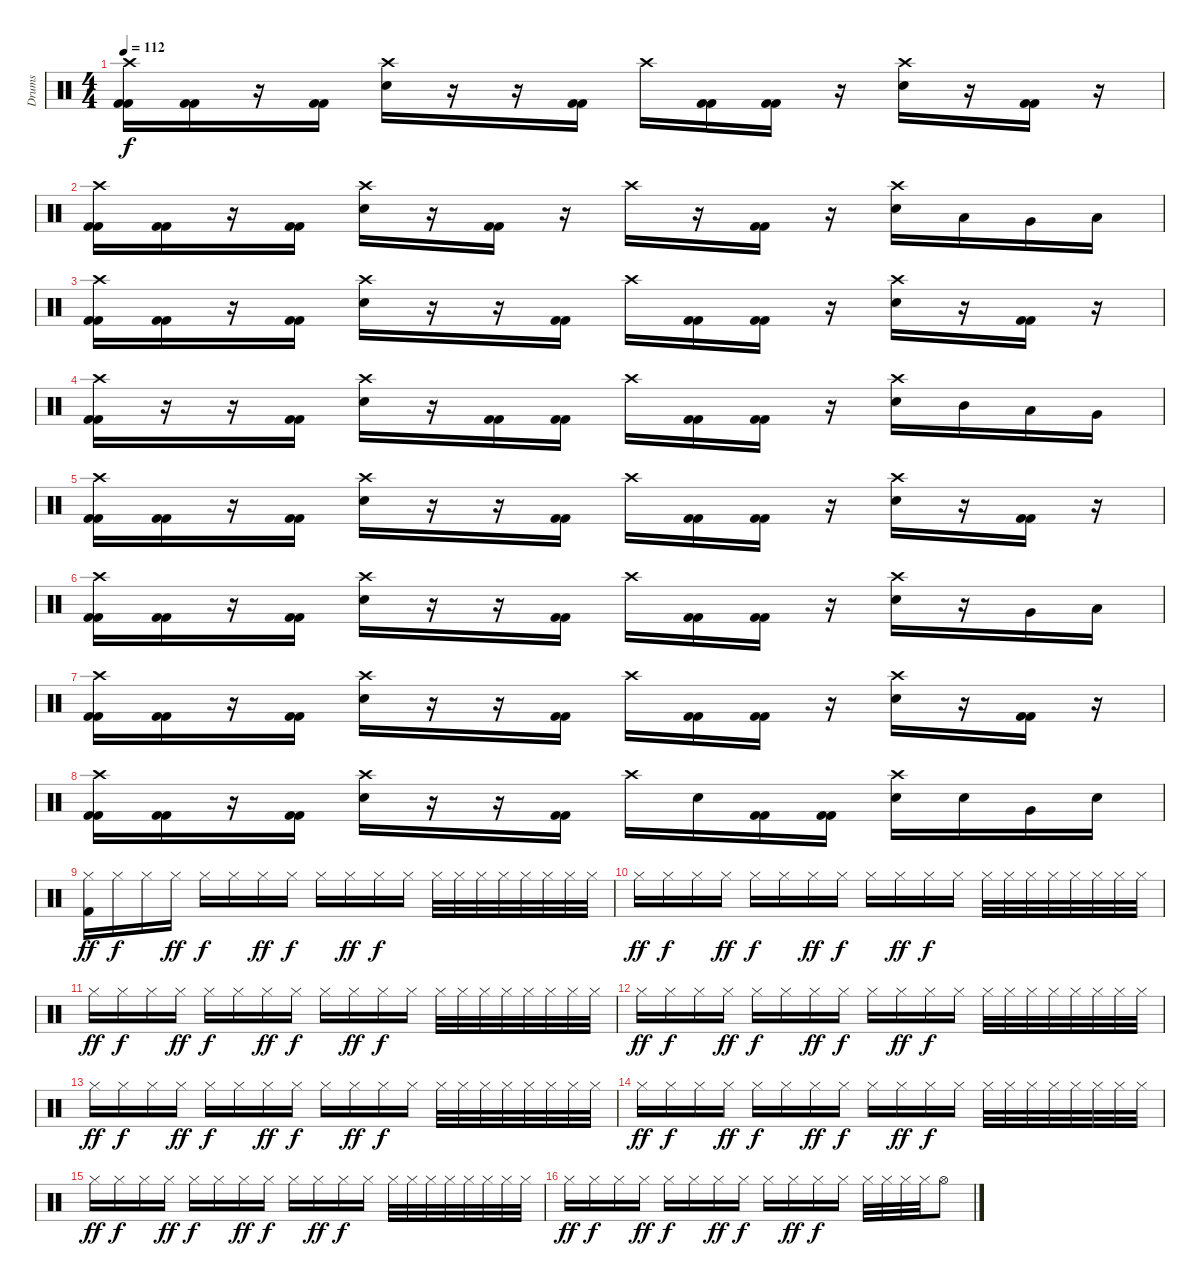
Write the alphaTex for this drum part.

\track ("Drums" "Drums") {instrument percussion}
\staff {score}
\articulation defaults
\ts (4 4)
\tempo 112
\clef neutral
\ks c
("Crash high (hit)" "Kick (hit) 2" "Kick (hit) 2").16{dy f} ("Kick (hit) 2" "Kick (hit) 2").16 r.16 ("Kick (hit) 2" "Kick (hit) 2").16 ("Crash high (hit)" "Electric Snare (hit)").16 r.16 r.16 ("Kick (hit) 2" "Kick (hit) 2").16 "Crash high (hit)".16 ("Kick (hit) 2" "Kick (hit) 2").16 ("Kick (hit) 2" "Kick (hit) 2").16 r.16 ("Crash high (hit)" "Electric Snare (hit)").16 r.16 ("Kick (hit) 2" "Kick (hit) 2").16 r.16 |
("Crash high (hit)" "Kick (hit) 2" "Kick (hit) 2").16 ("Kick (hit) 2" "Kick (hit) 2").16 r.16 ("Kick (hit) 2" "Kick (hit) 2").16 ("Crash high (hit)" "Electric Snare (hit)").16 r.16 ("Kick (hit) 2" "Kick (hit) 2").16 r.16 "Crash high (hit)".16 r.16 ("Kick (hit) 2" "Kick (hit) 2").16 r.16 ("Crash high (hit)" "Electric Snare (hit)").16 "Low Tom (hit)".16 "Very Low Tom (hit)".16 "Low Floor Tom (hit)".16 |
("Crash high (hit)" "Kick (hit) 2" "Kick (hit) 2").16 ("Kick (hit) 2" "Kick (hit) 2").16 r.16 ("Kick (hit) 2" "Kick (hit) 2").16 ("Crash high (hit)" "Electric Snare (hit)").16 r.16 r.16 ("Kick (hit) 2" "Kick (hit) 2").16 "Crash high (hit)".16 ("Kick (hit) 2" "Kick (hit) 2").16 ("Kick (hit) 2" "Kick (hit) 2").16 r.16 ("Crash high (hit)" "Electric Snare (hit)").16 r.16 ("Kick (hit) 2" "Kick (hit) 2").16 r.16 |
("Crash high (hit)" "Kick (hit) 2" "Kick (hit) 2").16 r.16 r.16 ("Kick (hit) 2" "Kick (hit) 2").16 ("Crash high (hit)" "Electric Snare (hit)").16 r.16 ("Kick (hit) 2" "Kick (hit) 2").16 ("Kick (hit) 2" "Kick (hit) 2").16 "Crash high (hit)".16 ("Kick (hit) 2" "Kick (hit) 2").16 ("Kick (hit) 2" "Kick (hit) 2").16 r.16 ("Crash high (hit)" "Electric Snare (hit)").16 "Mid Tom (hit)".16 "Low Tom (hit)".16 "Very Low Tom (hit)".16 |
("Crash high (hit)" "Kick (hit) 2" "Kick (hit) 2").16 ("Kick (hit) 2" "Kick (hit) 2").16 r.16 ("Kick (hit) 2" "Kick (hit) 2").16 ("Crash high (hit)" "Electric Snare (hit)").16 r.16 r.16 ("Kick (hit) 2" "Kick (hit) 2").16 "Crash high (hit)".16 ("Kick (hit) 2" "Kick (hit) 2").16 ("Kick (hit) 2" "Kick (hit) 2").16 r.16 ("Crash high (hit)" "Electric Snare (hit)").16 r.16 ("Kick (hit) 2" "Kick (hit) 2").16 r.16 |
("Crash high (hit)" "Kick (hit) 2" "Kick (hit) 2").16 ("Kick (hit) 2" "Kick (hit) 2").16 r.16 ("Kick (hit) 2" "Kick (hit) 2").16 ("Crash high (hit)" "Electric Snare (hit)").16 r.16 r.16 ("Kick (hit) 2" "Kick (hit) 2").16 "Crash high (hit)".16 ("Kick (hit) 2" "Kick (hit) 2").16 ("Kick (hit) 2" "Kick (hit) 2").16 r.16 ("Crash high (hit)" "Electric Snare (hit)").16 r.16 "Very Low Tom (hit)".16 "Low Floor Tom (hit)".16 |
("Crash high (hit)" "Kick (hit) 2" "Kick (hit) 2").16 ("Kick (hit) 2" "Kick (hit) 2").16 r.16 ("Kick (hit) 2" "Kick (hit) 2").16 ("Crash high (hit)" "Electric Snare (hit)").16 r.16 r.16 ("Kick (hit) 2" "Kick (hit) 2").16 "Crash high (hit)".16 ("Kick (hit) 2" "Kick (hit) 2").16 ("Kick (hit) 2" "Kick (hit) 2").16 r.16 ("Crash high (hit)" "Electric Snare (hit)").16 r.16 ("Kick (hit) 2" "Kick (hit) 2").16 r.16 |
("Crash high (hit)" "Kick (hit) 2" "Kick (hit) 2").16 ("Kick (hit) 2" "Kick (hit) 2").16 r.16 ("Kick (hit) 2" "Kick (hit) 2").16 ("Crash high (hit)" "Electric Snare (hit)").16 r.16 r.16 ("Kick (hit) 2" "Kick (hit) 2").16 "Crash high (hit)".16 "Electric Snare (hit)".16 ("Kick (hit) 2" "Kick (hit) 2").16 ("Kick (hit) 2" "Kick (hit) 2").16 ("Crash high (hit)" "Electric Snare (hit)").16 "Electric Snare (hit)".16 "Very Low Tom (hit)".16 "Electric Snare (hit)".16 |
("Hi-Hat (closed)" "Kick (hit) 2").16{dy ff} "Hi-Hat (closed)".16{dy f} "Hi-Hat (closed)".16 "Hi-Hat (closed)".16{dy ff} "Hi-Hat (closed)".16{dy f} "Hi-Hat (closed)".16 "Hi-Hat (closed)".16{dy ff} "Hi-Hat (closed)".16{dy f} "Hi-Hat (closed)".16 "Hi-Hat (closed)".16{dy ff} "Hi-Hat (closed)".16{dy f} "Hi-Hat (closed)".16 "Hi-Hat (closed)".32 "Hi-Hat (closed)".32 "Hi-Hat (closed)".32 "Hi-Hat (closed)".32 "Hi-Hat (closed)".32 "Hi-Hat (closed)".32 "Hi-Hat (closed)".32 "Hi-Hat (closed)".32 |
"Hi-Hat (closed)".16{dy ff} "Hi-Hat (closed)".16{dy f} "Hi-Hat (closed)".16 "Hi-Hat (closed)".16{dy ff} "Hi-Hat (closed)".16{dy f} "Hi-Hat (closed)".16 "Hi-Hat (closed)".16{dy ff} "Hi-Hat (closed)".16{dy f} "Hi-Hat (closed)".16 "Hi-Hat (closed)".16{dy ff} "Hi-Hat (closed)".16{dy f} "Hi-Hat (closed)".16 "Hi-Hat (closed)".32 "Hi-Hat (closed)".32 "Hi-Hat (closed)".32 "Hi-Hat (closed)".32 "Hi-Hat (closed)".32 "Hi-Hat (closed)".32 "Hi-Hat (closed)".32 "Hi-Hat (closed)".32 |
"Hi-Hat (closed)".16{dy ff} "Hi-Hat (closed)".16{dy f} "Hi-Hat (closed)".16 "Hi-Hat (closed)".16{dy ff} "Hi-Hat (closed)".16{dy f} "Hi-Hat (closed)".16 "Hi-Hat (closed)".16{dy ff} "Hi-Hat (closed)".16{dy f} "Hi-Hat (closed)".16 "Hi-Hat (closed)".16{dy ff} "Hi-Hat (closed)".16{dy f} "Hi-Hat (closed)".16 "Hi-Hat (closed)".32 "Hi-Hat (closed)".32 "Hi-Hat (closed)".32 "Hi-Hat (closed)".32 "Hi-Hat (closed)".32 "Hi-Hat (closed)".32 "Hi-Hat (closed)".32 "Hi-Hat (closed)".32 |
"Hi-Hat (closed)".16{dy ff} "Hi-Hat (closed)".16{dy f} "Hi-Hat (closed)".16 "Hi-Hat (closed)".16{dy ff} "Hi-Hat (closed)".16{dy f} "Hi-Hat (closed)".16 "Hi-Hat (closed)".16{dy ff} "Hi-Hat (closed)".16{dy f} "Hi-Hat (closed)".16 "Hi-Hat (closed)".16{dy ff} "Hi-Hat (closed)".16{dy f} "Hi-Hat (closed)".16 "Hi-Hat (closed)".32 "Hi-Hat (closed)".32 "Hi-Hat (closed)".32 "Hi-Hat (closed)".32 "Hi-Hat (closed)".32 "Hi-Hat (closed)".32 "Hi-Hat (closed)".32 "Hi-Hat (closed)".32 |
"Hi-Hat (closed)".16{dy ff} "Hi-Hat (closed)".16{dy f} "Hi-Hat (closed)".16 "Hi-Hat (closed)".16{dy ff} "Hi-Hat (closed)".16{dy f} "Hi-Hat (closed)".16 "Hi-Hat (closed)".16{dy ff} "Hi-Hat (closed)".16{dy f} "Hi-Hat (closed)".16 "Hi-Hat (closed)".16{dy ff} "Hi-Hat (closed)".16{dy f} "Hi-Hat (closed)".16 "Hi-Hat (closed)".32 "Hi-Hat (closed)".32 "Hi-Hat (closed)".32 "Hi-Hat (closed)".32 "Hi-Hat (closed)".32 "Hi-Hat (closed)".32 "Hi-Hat (closed)".32 "Hi-Hat (closed)".32 |
"Hi-Hat (closed)".16{dy ff} "Hi-Hat (closed)".16{dy f} "Hi-Hat (closed)".16 "Hi-Hat (closed)".16{dy ff} "Hi-Hat (closed)".16{dy f} "Hi-Hat (closed)".16 "Hi-Hat (closed)".16{dy ff} "Hi-Hat (closed)".16{dy f} "Hi-Hat (closed)".16 "Hi-Hat (closed)".16{dy ff} "Hi-Hat (closed)".16{dy f} "Hi-Hat (closed)".16 "Hi-Hat (closed)".32 "Hi-Hat (closed)".32 "Hi-Hat (closed)".32 "Hi-Hat (closed)".32 "Hi-Hat (closed)".32 "Hi-Hat (closed)".32 "Hi-Hat (closed)".32 "Hi-Hat (closed)".32 |
"Hi-Hat (closed)".16{dy ff} "Hi-Hat (closed)".16{dy f} "Hi-Hat (closed)".16 "Hi-Hat (closed)".16{dy ff} "Hi-Hat (closed)".16{dy f} "Hi-Hat (closed)".16 "Hi-Hat (closed)".16{dy ff} "Hi-Hat (closed)".16{dy f} "Hi-Hat (closed)".16 "Hi-Hat (closed)".16{dy ff} "Hi-Hat (closed)".16{dy f} "Hi-Hat (closed)".16 "Hi-Hat (closed)".32 "Hi-Hat (closed)".32 "Hi-Hat (closed)".32 "Hi-Hat (closed)".32 "Hi-Hat (closed)".32 "Hi-Hat (closed)".32 "Hi-Hat (closed)".32 "Hi-Hat (closed)".32 |
"Hi-Hat (closed)".16{dy ff} "Hi-Hat (closed)".16{dy f} "Hi-Hat (closed)".16 "Hi-Hat (closed)".16{dy ff} "Hi-Hat (closed)".16{dy f} "Hi-Hat (closed)".16 "Hi-Hat (closed)".16{dy ff} "Hi-Hat (closed)".16{dy f} "Hi-Hat (closed)".16 "Hi-Hat (closed)".16{dy ff} "Hi-Hat (closed)".16{dy f} "Hi-Hat (closed)".16 "Hi-Hat (closed)".32 "Hi-Hat (closed)".32 "Hi-Hat (closed)".32 "Hi-Hat (closed)".32 "Hi-Hat (open)".8
